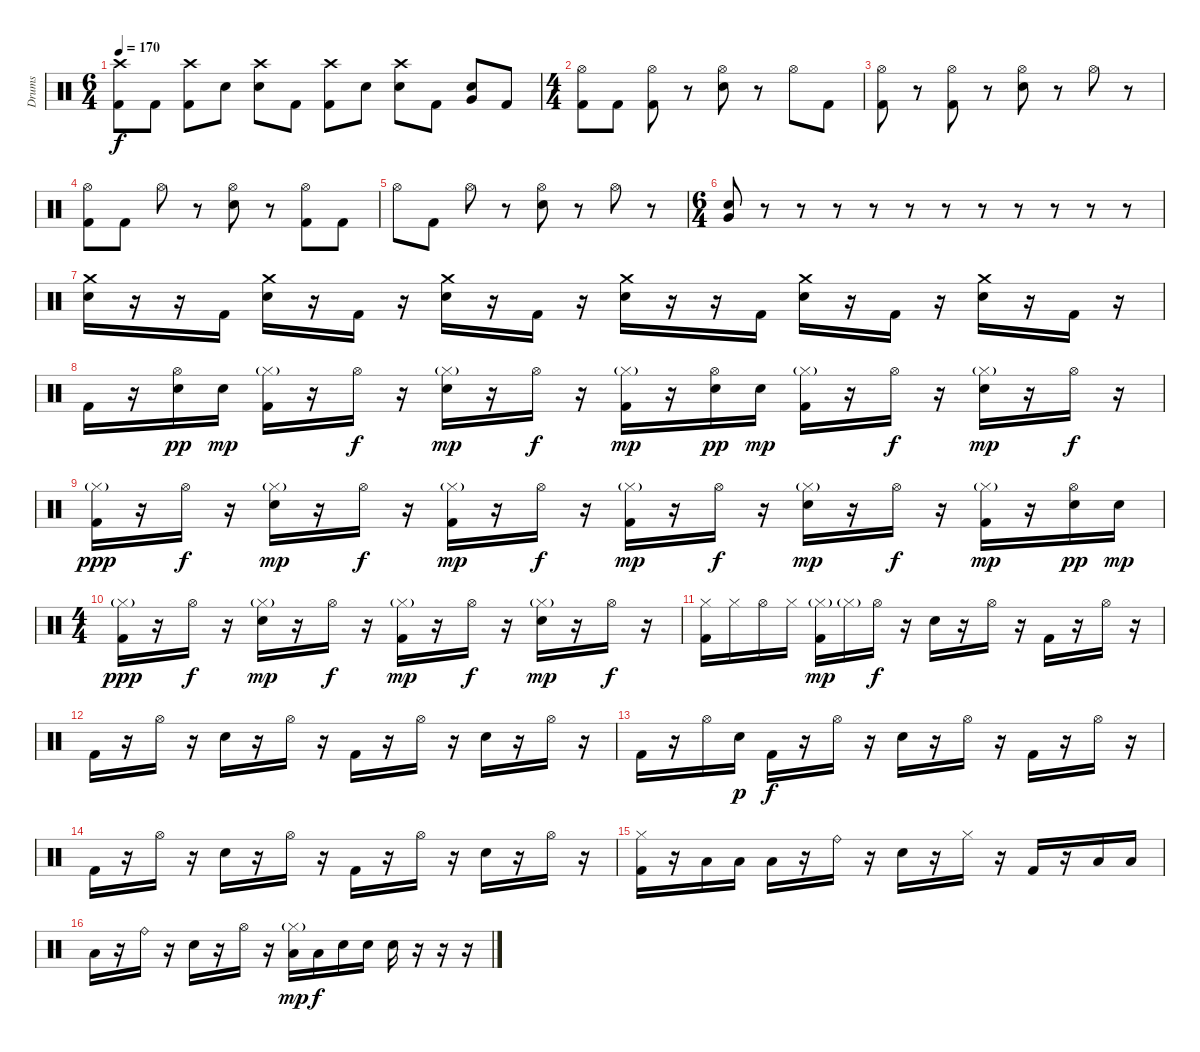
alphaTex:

\track ("Drums" "Drums") {instrument percussion}
\staff {score}
\articulation defaults
\ts (6 4)
\tempo 170
\clef neutral
\ks c
("Crash high (hit)" "Kick (hit) 2").8{dy f} "Kick (hit) 2".8 ("Crash high (hit)" "Kick (hit) 2").8 "Electric Snare (hit)".8 ("Crash high (hit)" "Electric Snare (hit)").8 "Kick (hit) 2".8 ("Crash high (hit)" "Kick (hit) 2").8 "Electric Snare (hit)".8 ("Crash high (hit)" "Electric Snare (hit)").8 "Kick (hit) 2".8 ("Very Low Tom (hit)" "Electric Snare (hit)").8 "Kick (hit) 2".8 |
\ts (4 4)
("Kick (hit) 2" "Hi-Hat (open)").8 "Kick (hit) 2".8 ("Kick (hit) 2" "Hi-Hat (open)").8 r.8 ("Electric Snare (hit)" "Hi-Hat (open)").8 r.8 "Hi-Hat (open)".8 "Kick (hit) 2".8 |
("Kick (hit) 2" "Hi-Hat (open)").8 r.8 ("Kick (hit) 2" "Hi-Hat (open)").8 r.8 ("Electric Snare (hit)" "Hi-Hat (open)").8 r.8 "Hi-Hat (open)".8 r.8 |
("Kick (hit) 2" "Hi-Hat (open)").8 "Kick (hit) 2".8 "Hi-Hat (open)".8 r.8 ("Electric Snare (hit)" "Hi-Hat (open)").8 r.8 ("Kick (hit) 2" "Hi-Hat (open)").8 "Kick (hit) 2".8 |
"Hi-Hat (open)".8 "Kick (hit) 2".8 "Hi-Hat (open)".8 r.8 ("Electric Snare (hit)" "Hi-Hat (open)").8 r.8 "Hi-Hat (open)".8 r.8 |
\ts (6 4)
("Very Low Tom (hit)" "Electric Snare (hit)").8 r.8 r.8 r.8 r.8 r.8 r.8 r.8 r.8 r.8 r.8 r.8 |
("Crash medium (hit)" "Electric Snare (hit)").16 r.16 r.16 "Kick (hit) 2".16 ("Crash medium (hit)" "Electric Snare (hit)").16 r.16 "Kick (hit) 2".16 r.16 ("Crash medium (hit)" "Electric Snare (hit)").16 r.16 "Kick (hit) 2".16 r.16 ("Crash medium (hit)" "Electric Snare (hit)").16 r.16 r.16 "Kick (hit) 2".16 ("Crash medium (hit)" "Electric Snare (hit)").16 r.16 "Kick (hit) 2".16 r.16 ("Crash medium (hit)" "Electric Snare (hit)").16 r.16 "Kick (hit) 2".16 r.16 |
"Kick (hit) 2".16 r.16 ("Electric Snare (hit)" "Hi-Hat (open)").16{dy pp} "Electric Snare (hit)".16{dy mp} ("Kick (hit) 2" "Hi-Hat (closed)"{g}).16 r.16 "Hi-Hat (open)".16{dy f} r.16 ("Electric Snare (hit)" "Hi-Hat (closed)"{g}).16{dy mp} r.16 "Hi-Hat (open)".16{dy f} r.16 ("Kick (hit) 2" "Hi-Hat (closed)"{g}).16{dy mp} r.16 ("Electric Snare (hit)" "Hi-Hat (open)").16{dy pp} "Electric Snare (hit)".16{dy mp} ("Kick (hit) 2" "Hi-Hat (closed)"{g}).16 r.16 "Hi-Hat (open)".16{dy f} r.16 ("Electric Snare (hit)" "Hi-Hat (closed)"{g}).16{dy mp} r.16 "Hi-Hat (open)".16{dy f} r.16 |
("Kick (hit) 2" "Hi-Hat (closed)"{g}).16{dy ppp} r.16 "Hi-Hat (open)".16{dy f} r.16 ("Electric Snare (hit)" "Hi-Hat (closed)"{g}).16{dy mp} r.16 "Hi-Hat (open)".16{dy f} r.16 ("Kick (hit) 2" "Hi-Hat (closed)"{g}).16{dy mp} r.16 "Hi-Hat (open)".16{dy f} r.16 ("Kick (hit) 2" "Hi-Hat (closed)"{g}).16{dy mp} r.16 "Hi-Hat (open)".16{dy f} r.16 ("Electric Snare (hit)" "Hi-Hat (closed)"{g}).16{dy mp} r.16 "Hi-Hat (open)".16{dy f} r.16 ("Kick (hit) 2" "Hi-Hat (closed)"{g}).16{dy mp} r.16 ("Electric Snare (hit)" "Hi-Hat (open)").16{dy pp} "Electric Snare (hit)".16{dy mp} |
\ts (4 4)
("Kick (hit) 2" "Hi-Hat (closed)"{g}).16{dy ppp} r.16 "Hi-Hat (open)".16{dy f} r.16 ("Electric Snare (hit)" "Hi-Hat (closed)"{g}).16{dy mp} r.16 "Hi-Hat (open)".16{dy f} r.16 ("Kick (hit) 2" "Hi-Hat (closed)"{g}).16{dy mp} r.16 "Hi-Hat (open)".16{dy f} r.16 ("Electric Snare (hit)" "Hi-Hat (closed)"{g}).16{dy mp} r.16 "Hi-Hat (open)".16{dy f} r.16 |
("Kick (hit) 2" "Hi-Hat (closed)").16 "Hi-Hat (closed)".16 "Hi-Hat (open)".16 "Hi-Hat (closed)".16 ("Kick (hit) 2" "Hi-Hat (closed)"{g}).16{dy mp} "Hi-Hat (closed)"{g}.16 "Hi-Hat (open)".16{dy f} r.16 "Electric Snare (hit)".16 r.16 "Hi-Hat (open)".16 r.16 "Kick (hit) 2".16 r.16 "Hi-Hat (open)".16 r.16 |
"Kick (hit) 2".16 r.16 "Hi-Hat (open)".16 r.16 "Electric Snare (hit)".16 r.16 "Hi-Hat (open)".16 r.16 "Kick (hit) 2".16 r.16 "Hi-Hat (open)".16 r.16 "Electric Snare (hit)".16 r.16 "Hi-Hat (open)".16 r.16 |
"Kick (hit) 2".16 r.16 "Hi-Hat (open)".16 "Electric Snare (hit)".16{dy p} "Kick (hit) 2".16{dy f} r.16 "Hi-Hat (open)".16 r.16 "Electric Snare (hit)".16 r.16 "Hi-Hat (open)".16 r.16 "Kick (hit) 2".16 r.16 "Hi-Hat (open)".16 r.16 |
"Kick (hit) 2".16 r.16 "Hi-Hat (open)".16 r.16 "Electric Snare (hit)".16 r.16 "Hi-Hat (open)".16 r.16 "Kick (hit) 2".16 r.16 "Hi-Hat (open)".16 r.16 "Electric Snare (hit)".16 r.16 "Hi-Hat (open)".16 r.16 |
("Kick (hit) 2" "Hi-Hat (closed)").16 r.16 "Low Tom (hit)".16 "Low Tom (hit)".16 "Low Tom (hit)".16 r.16 "Ride (bell)".16 r.16 "Electric Snare (hit)".16 r.16 "Hi-Hat (closed)".16 r.16 "Kick (hit) 2".16 r.16 "Low Tom (hit)".16 "Low Tom (hit)".16 |
"Low Tom (hit)".16 r.16 "Ride (bell)".16 r.16 "Electric Snare (hit)".16 r.16 "Hi-Hat (open)".16 r.16 ("Low Tom (hit)" "Hi-Hat (closed)"{g}).16{dy mp} "Low Tom (hit)".16{dy f} "Electric Snare (hit)".16 "Electric Snare (hit)".16 "Electric Snare (hit)".16 r.16 r.16 r.16
